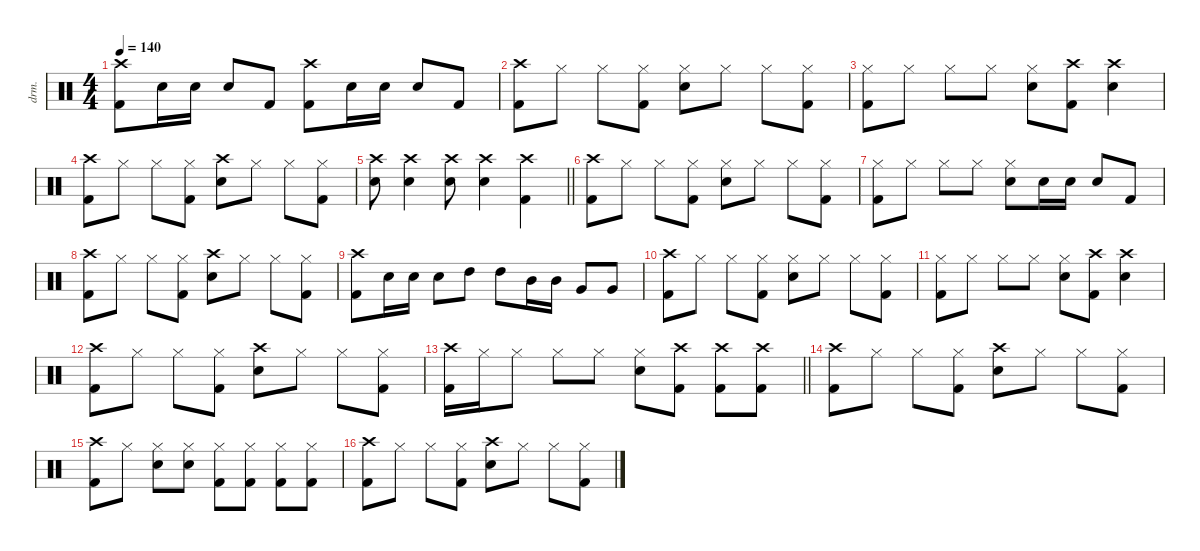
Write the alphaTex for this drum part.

\defaultSystemsLayout 4
\hideDynamics
\bracketExtendMode nobrackets
\otherSystemsTrackNameOrientation horizontal
\track ("Drums" "drm.") {defaultSystemsLayout 4 instrument percussion}
\staff {score}
\articulation defaults
\ts (4 4)
\tempo 140
\clef neutral
\ks c
("Crash high (hit)" "Kick (hit) 2").8{dy f beam Down} "Snare (hit) 2".16{beam Down} "Snare (hit) 2".16{beam Down} "Snare (hit) 2".8{beam Up} "Kick (hit) 2".8{beam Up} ("Crash high (hit)" "Kick (hit) 2").8{beam Down} "Snare (hit) 2".16{beam Down} "Snare (hit) 2".16{beam Down} "Snare (hit) 2".8{beam Up} "Kick (hit) 2".8{beam Up} |
("Crash high (hit)" "Kick (hit) 2").8{beam Down} "Hi-Hat (closed)".8{beam Down} "Hi-Hat (closed)".8{beam Down} ("Hi-Hat (closed)" "Kick (hit) 2").8{beam Down} ("Hi-Hat (closed)" "Snare (hit) 2").8{beam Down} "Hi-Hat (closed)".8{beam Down} "Hi-Hat (closed)".8{beam Down} ("Hi-Hat (closed)" "Kick (hit) 2").8{beam Down} |
("Hi-Hat (closed)" "Kick (hit) 2").8{beam Down} "Hi-Hat (closed)".8{beam Down} "Hi-Hat (closed)".8{beam Down} "Hi-Hat (closed)".8{beam Down} ("Hi-Hat (closed)" "Snare (hit) 2").8{beam Down} ("Crash high (hit)" "Kick (hit) 2").8{beam Down} ("Crash high (hit)" "Snare (hit) 2").4{beam Down} |
("Crash high (hit)" "Kick (hit) 2").8{beam Down} "Hi-Hat (closed)".8{beam Down} "Hi-Hat (closed)".8{beam Down} ("Hi-Hat (closed)" "Kick (hit) 2").8{beam Down} ("Crash high (hit)" "Snare (hit) 2").8{beam Down} "Hi-Hat (closed)".8{beam Down} "Hi-Hat (closed)".8{beam Down} ("Hi-Hat (closed)" "Kick (hit) 2").8{beam Down} |
\barLineRight lightlight
("Crash high (hit)" "Snare (hit) 2").8{beam Down} ("Crash high (hit)" "Snare (hit) 2").4{beam Down} ("Crash high (hit)" "Snare (hit) 2").8{beam Down} ("Crash high (hit)" "Snare (hit) 2").4{beam Down} ("Crash high (hit)" "Kick (hit) 2").4{beam Down} |
("Crash high (hit)" "Kick (hit) 2").8{beam Down} "Hi-Hat (closed)".8{beam Down} "Hi-Hat (closed)".8{beam Down} ("Hi-Hat (closed)" "Kick (hit) 2").8{beam Down} ("Hi-Hat (closed)" "Snare (hit) 2").8{beam Down} "Hi-Hat (closed)".8{beam Down} "Hi-Hat (closed)".8{beam Down} ("Hi-Hat (closed)" "Kick (hit) 2").8{beam Down} |
("Hi-Hat (closed)" "Kick (hit) 2").8{beam Down} "Hi-Hat (closed)".8{beam Down} "Hi-Hat (closed)".8{beam Down} "Hi-Hat (closed)".8{beam Down} ("Hi-Hat (closed)" "Snare (hit) 2").8{beam Down} "Snare (hit) 2".16{beam Down} "Snare (hit) 2".16{beam Down} "Snare (hit) 2".8{beam Up} "Kick (hit) 2".8{beam Up} |
("Crash high (hit)" "Kick (hit) 2").8{beam Down} "Hi-Hat (closed)".8{beam Down} "Hi-Hat (closed)".8{beam Down} ("Hi-Hat (closed)" "Kick (hit) 2").8{beam Down} ("Crash high (hit)" "Snare (hit) 2").8{beam Down} "Hi-Hat (closed)".8{beam Down} "Hi-Hat (closed)".8{beam Down} ("Hi-Hat (closed)" "Kick (hit) 2").8{beam Down} |
("Crash high (hit)" "Kick (hit) 2").8{beam Down} "Snare (hit) 2".16{beam Down} "Snare (hit) 2".16{beam Down} "Snare (hit) 2".8{beam Down} "High Tom (hit)".8{beam Down} "High Tom (hit)".8{beam Down} "Mid Tom (hit)".16{beam Down} "Mid Tom (hit)".16{beam Down} "Very Low Tom (hit)".8{beam Up} "Very Low Tom (hit)".8{beam Up} |
("Crash high (hit)" "Kick (hit) 2").8{beam Down} "Hi-Hat (closed)".8{beam Down} "Hi-Hat (closed)".8{beam Down} ("Hi-Hat (closed)" "Kick (hit) 2").8{beam Down} ("Hi-Hat (closed)" "Snare (hit) 2").8{beam Down} "Hi-Hat (closed)".8{beam Down} "Hi-Hat (closed)".8{beam Down} ("Hi-Hat (closed)" "Kick (hit) 2").8{beam Down} |
("Hi-Hat (closed)" "Kick (hit) 2").8{beam Down} "Hi-Hat (closed)".8{beam Down} "Hi-Hat (closed)".8{beam Down} "Hi-Hat (closed)".8{beam Down} ("Hi-Hat (closed)" "Snare (hit) 2").8{beam Down} ("Crash high (hit)" "Kick (hit) 2").8{beam Down} ("Crash high (hit)" "Snare (hit) 2").4{beam Down} |
("Crash high (hit)" "Kick (hit) 2").8{beam Down} "Hi-Hat (closed)".8{beam Down} "Hi-Hat (closed)".8{beam Down} ("Hi-Hat (closed)" "Kick (hit) 2").8{beam Down} ("Crash high (hit)" "Snare (hit) 2").8{beam Down} "Hi-Hat (closed)".8{beam Down} "Hi-Hat (closed)".8{beam Down} ("Hi-Hat (closed)" "Kick (hit) 2").8{beam Down} |
\barLineRight lightlight
("Crash high (hit)" "Kick (hit) 2").16{beam Down} "Hi-Hat (closed)".16{beam Down} "Hi-Hat (closed)".8{beam Down} "Hi-Hat (closed)".8{beam Down} "Hi-Hat (closed)".8{beam Down} ("Hi-Hat (closed)" "Snare (hit) 2").8{beam Down} ("Crash high (hit)" "Kick (hit) 2").8{beam Down} ("Crash high (hit)" "Kick (hit) 2").8{beam Down} ("Crash high (hit)" "Kick (hit) 2").8{beam Down} |
("Crash high (hit)" "Kick (hit) 2").8{beam Down} "Hi-Hat (closed)".8{beam Down} "Hi-Hat (closed)".8{beam Down} ("Hi-Hat (closed)" "Kick (hit) 2").8{beam Down} ("Crash high (hit)" "Snare (hit) 2").8{beam Down} "Hi-Hat (closed)".8{beam Down} "Hi-Hat (closed)".8{beam Down} ("Hi-Hat (closed)" "Kick (hit) 2").8{beam Down} |
("Crash high (hit)" "Kick (hit) 2").8{beam Down} "Hi-Hat (closed)".8{beam Down} ("Hi-Hat (closed)" "Snare (hit) 2").8{beam Down} ("Hi-Hat (closed)" "Snare (hit) 2").8{beam Down} ("Hi-Hat (closed)" "Kick (hit) 2").8{beam Down} ("Hi-Hat (closed)" "Kick (hit) 2").8{beam Down} ("Hi-Hat (closed)" "Kick (hit) 2").8{beam Down} ("Hi-Hat (closed)" "Kick (hit) 2").8{beam Down} |
("Crash high (hit)" "Kick (hit) 2").8{beam Down} "Hi-Hat (closed)".8{beam Down} "Hi-Hat (closed)".8{beam Down} ("Hi-Hat (closed)" "Kick (hit) 2").8{beam Down} ("Crash high (hit)" "Snare (hit) 2").8{beam Down} "Hi-Hat (closed)".8{beam Down} "Hi-Hat (closed)".8{beam Down} ("Hi-Hat (closed)" "Kick (hit) 2").8{beam Down}
